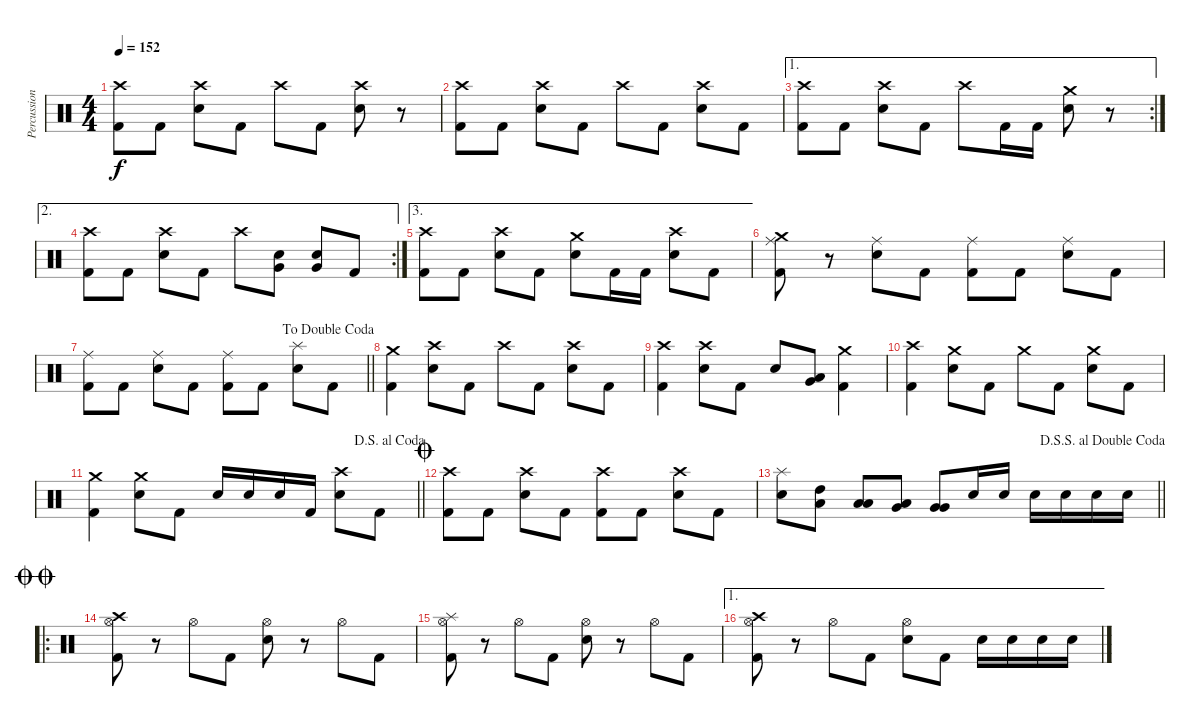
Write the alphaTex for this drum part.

\track ("Percussion" "Percussion") {instrument percussion}
\staff {score}
\articulation defaults
\ts (4 4)
\tempo 152
\clef neutral
\ks c
("Crash high (hit)" "Kick (hit) 2").8{dy f} "Kick (hit) 2".8 ("Crash high (hit)" "Snare (hit) 2").8 "Kick (hit) 2".8 "Crash high (hit)".8 "Kick (hit) 2".8 ("Crash high (hit)" "Snare (hit) 2").8 r.8 |
("Crash high (hit)" "Kick (hit) 2").8 "Kick (hit) 2".8 ("Crash high (hit)" "Snare (hit) 2").8 "Kick (hit) 2".8 "Crash high (hit)".8 "Kick (hit) 2".8 ("Crash high (hit)" "Snare (hit) 2").8 "Kick (hit) 2".8 |
\ae 1
\rc 2
("Crash high (hit)" "Kick (hit) 2").8 "Kick (hit) 2".8 ("Crash high (hit)" "Snare (hit) 2").8 "Kick (hit) 2".8 "Crash high (hit)".8 "Kick (hit) 2".16 "Kick (hit) 2".16 ("Crash medium (hit)" "Snare (hit) 2").8 r.8 |
\ae 2
\rc 2
("Crash high (hit)" "Kick (hit) 2").8 "Kick (hit) 2".8 ("Crash high (hit)" "Snare (hit) 2").8 "Kick (hit) 2".8 "Crash high (hit)".8 ("Very Low Tom (hit)" "Snare (hit) 2").8 ("Very Low Tom (hit)" "Snare (hit) 2").8 "Kick (hit) 2".8 |
\ae 3
("Crash high (hit)" "Kick (hit) 2").8 "Kick (hit) 2".8 ("Crash high (hit)" "Snare (hit) 2").8 "Kick (hit) 2".8 ("Crash medium (hit)" "Snare (hit) 2").8 "Kick (hit) 2".16 "Kick (hit) 2".16 ("Crash high (hit)" "Snare (hit) 2").8 "Kick (hit) 2".8 |
("Crash medium (hit)" "Ride (middle)" "Kick (hit) 2").8 r.8 ("Ride (middle)" "Snare (hit) 2").8 "Kick (hit) 2".8 ("Ride (middle)" "Kick (hit) 2").8 "Kick (hit) 2".8 ("Ride (middle)" "Snare (hit) 2").8 "Kick (hit) 2".8 |
\jump dadoublecoda
\barLineRight lightlight
("Ride (middle)" "Kick (hit) 2").8 "Kick (hit) 2".8 ("Ride (middle)" "Snare (hit) 2").8 "Kick (hit) 2".8 ("Ride (middle)" "Kick (hit) 2").8 "Kick (hit) 2".8 ("Splash (hit)" "Snare (hit) 2").8 "Kick (hit) 2".8 |
("Crash medium (hit)" "Kick (hit) 2").4 ("Crash high (hit)" "Snare (hit) 2").8 "Kick (hit) 2".8 "Crash high (hit)".8 "Kick (hit) 2".8 ("Crash high (hit)" "Snare (hit) 2").8 "Kick (hit) 2".8 |
("Crash high (hit)" "Kick (hit) 2").4 ("Crash high (hit)" "Snare (hit) 2").8 "Kick (hit) 2".8 "Snare (hit) 2".8 ("Low Tom (hit)" "Very Low Tom (hit)").8 ("Crash medium (hit)" "Kick (hit) 2").4 |
("Crash high (hit)" "Kick (hit) 2").4 ("Crash medium (hit)" "Snare (hit) 2").8 "Kick (hit) 2".8 "Crash medium (hit)".8 "Kick (hit) 2".8 ("Crash medium (hit)" "Snare (hit) 2").8 "Kick (hit) 2".8 |
\jump dalsegnoalcoda
\barLineRight lightlight
("Crash medium (hit)" "Kick (hit) 2").4 ("Crash medium (hit)" "Snare (hit) 2").8 "Kick (hit) 2".8 "Snare (hit) 2".16 "Snare (hit) 2".16 "Snare (hit) 2".16 "Kick (hit) 2".16 ("Crash high (hit)" "Snare (hit) 2").8 "Kick (hit) 2".8 |
\jump coda
("Crash high (hit)" "Kick (hit) 2").8 "Kick (hit) 2".8 ("Crash high (hit)" "Snare (hit) 2").8 "Kick (hit) 2".8 ("Crash high (hit)" "Kick (hit) 2").8 "Kick (hit) 2".8 ("Crash high (hit)" "Snare (hit) 2").8 "Kick (hit) 2".8 |
\jump dalsegnosegnoaldoublecoda
\barLineRight lightlight
("Splash (hit)" "Snare (hit) 2").8 ("High Tom (hit)" "Low Tom (hit)").8 ("Low Tom (hit)" "Low Tom (hit)").8 ("Low Tom (hit)" "Very Low Tom (hit)").8 ("Very Low Tom (hit)" "Very Low Tom (hit)").8 "Snare (hit) 2".16 "Snare (hit) 2".16 "Snare (hit) 2".16 "Snare (hit) 2".16 "Snare (hit) 2".16 "Snare (hit) 2".16 |
\ro
\jump doublecoda
("Crash high (hit)" "Hi-Hat (open)" "Kick (hit) 2").8 r.8 "Hi-Hat (open)".8 "Kick (hit) 2".8 ("Snare (hit) 2" "Hi-Hat (open)").8 r.8 "Hi-Hat (open)".8 "Kick (hit) 2".8 |
("Splash (hit)" "Hi-Hat (open)" "Kick (hit) 2").8 r.8 "Hi-Hat (open)".8 "Kick (hit) 2".8 ("Snare (hit) 2" "Hi-Hat (open)").8 r.8 "Hi-Hat (open)".8 "Kick (hit) 2".8 |
\ae 1
("Crash high (hit)" "Hi-Hat (open)" "Kick (hit) 2").8 r.8 "Hi-Hat (open)".8 "Kick (hit) 2".8 ("Snare (hit) 2" "Hi-Hat (open)").8 "Kick (hit) 2".8 "Snare (hit) 2".16 "Snare (hit) 2".16 "Snare (hit) 2".16 "Snare (hit) 2".16
